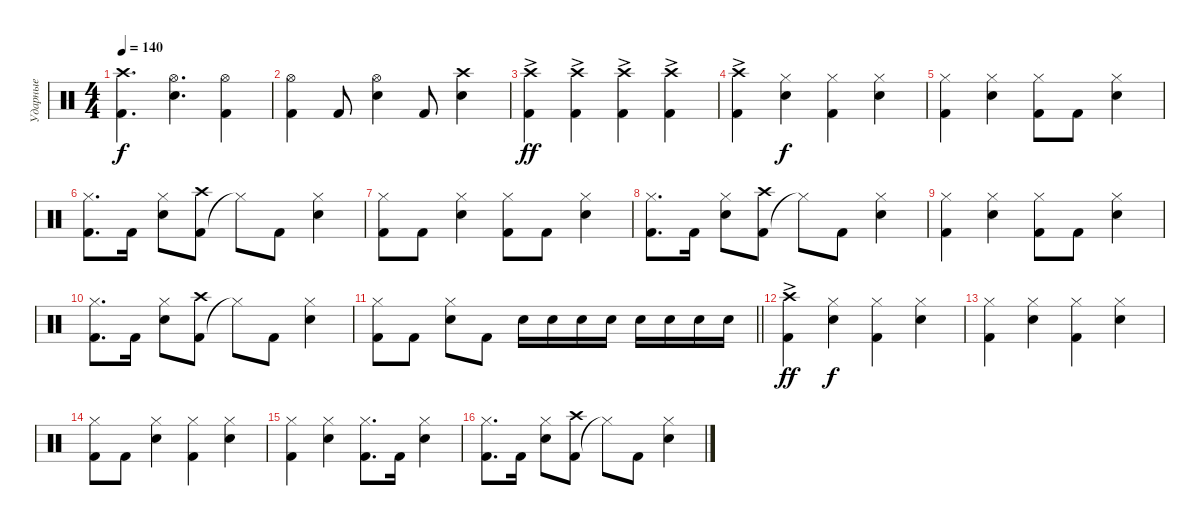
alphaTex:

\track ("Ударные" "Ударные") {instrument percussion}
\staff {score}
\articulation defaults
\ts (4 4)
\tempo 140
\clef neutral
\ks c
("Kick (hit) 2" "Crash high (hit)").4{d dy f} ("Snare (hit) 2" "Hi-Hat (open)").4{d} ("Kick (hit) 2" "Hi-Hat (open)").4 |
("Kick (hit) 2" "Hi-Hat (open)").4 "Kick (hit) 2".8 ("Snare (hit) 2" "Hi-Hat (open)").4 "Kick (hit) 2".8 ("Snare (hit) 2" "Crash high (hit)").4 |
("Kick (hit) 2" "Crash high (hit)"{ac}).4{dy ff} ("Kick (hit) 2" "Crash high (hit)"{ac}).4 ("Kick (hit) 2" "Crash high (hit)"{ac}).4 ("Kick (hit) 2" "Crash high (hit)"{ac}).4 |
("Kick (hit) 2" "Crash high (hit)"{ac}).4 ("Snare (hit) 2" "Hi-Hat (closed)").4{dy f} ("Kick (hit) 2" "Hi-Hat (closed)").4 ("Snare (hit) 2" "Hi-Hat (closed)").4 |
("Kick (hit) 2" "Hi-Hat (closed)").4 ("Snare (hit) 2" "Hi-Hat (closed)").4 ("Kick (hit) 2" "Hi-Hat (closed)").8 "Kick (hit) 2".8 ("Snare (hit) 2" "Hi-Hat (closed)").4 |
("Kick (hit) 2" "Hi-Hat (closed)").8{d} "Kick (hit) 2".16 ("Snare (hit) 2" "Hi-Hat (closed)").8 ("Kick (hit) 2" "Crash high (hit)").8 "Hi-Hat (closed)"{t}.8 "Kick (hit) 2".8 ("Snare (hit) 2" "Hi-Hat (closed)").4 |
("Kick (hit) 2" "Hi-Hat (closed)").8 "Kick (hit) 2".8 ("Snare (hit) 2" "Hi-Hat (closed)").4 ("Kick (hit) 2" "Hi-Hat (closed)").8 "Kick (hit) 2".8 ("Snare (hit) 2" "Hi-Hat (closed)").4 |
("Kick (hit) 2" "Hi-Hat (closed)").8{d} "Kick (hit) 2".16 ("Snare (hit) 2" "Hi-Hat (closed)").8 ("Kick (hit) 2" "Crash high (hit)").8 "Hi-Hat (closed)"{t}.8 "Kick (hit) 2".8 ("Snare (hit) 2" "Hi-Hat (closed)").4 |
("Kick (hit) 2" "Hi-Hat (closed)").4 ("Snare (hit) 2" "Hi-Hat (closed)").4 ("Kick (hit) 2" "Hi-Hat (closed)").8 "Kick (hit) 2".8 ("Snare (hit) 2" "Hi-Hat (closed)").4 |
("Kick (hit) 2" "Hi-Hat (closed)").8{d} "Kick (hit) 2".16 ("Snare (hit) 2" "Hi-Hat (closed)").8 ("Kick (hit) 2" "Crash high (hit)").8 "Hi-Hat (closed)"{t}.8 "Kick (hit) 2".8 ("Snare (hit) 2" "Hi-Hat (closed)").4 |
\barLineRight lightlight
("Kick (hit) 2" "Hi-Hat (closed)").8 "Kick (hit) 2".8 ("Snare (hit) 2" "Hi-Hat (closed)").8 "Kick (hit) 2".8 "Snare (hit) 2".16 "Snare (hit) 2".16 "Snare (hit) 2".16 "Snare (hit) 2".16 "Snare (hit) 2".16 "Snare (hit) 2".16 "Snare (hit) 2".16 "Snare (hit) 2".16 |
("Kick (hit) 2" "Crash high (hit)"{ac}).4{dy ff} ("Snare (hit) 2" "Hi-Hat (closed)").4{dy f} ("Kick (hit) 2" "Hi-Hat (closed)").4 ("Snare (hit) 2" "Hi-Hat (closed)").4 |
("Kick (hit) 2" "Hi-Hat (closed)").4 ("Snare (hit) 2" "Hi-Hat (closed)").4 ("Kick (hit) 2" "Hi-Hat (closed)").4 ("Snare (hit) 2" "Hi-Hat (closed)").4 |
("Kick (hit) 2" "Hi-Hat (closed)").8 "Kick (hit) 2".8 ("Snare (hit) 2" "Hi-Hat (closed)").4 ("Kick (hit) 2" "Hi-Hat (closed)").4 ("Snare (hit) 2" "Hi-Hat (closed)").4 |
("Kick (hit) 2" "Hi-Hat (closed)").4 ("Snare (hit) 2" "Hi-Hat (closed)").4 ("Kick (hit) 2" "Hi-Hat (closed)").8{d} "Kick (hit) 2".16 ("Snare (hit) 2" "Hi-Hat (closed)").4 |
("Kick (hit) 2" "Hi-Hat (closed)").8{d} "Kick (hit) 2".16 ("Snare (hit) 2" "Hi-Hat (closed)").8 ("Kick (hit) 2" "Crash high (hit)").8 "Hi-Hat (closed)"{t}.8 "Kick (hit) 2".8 ("Snare (hit) 2" "Hi-Hat (closed)").4
